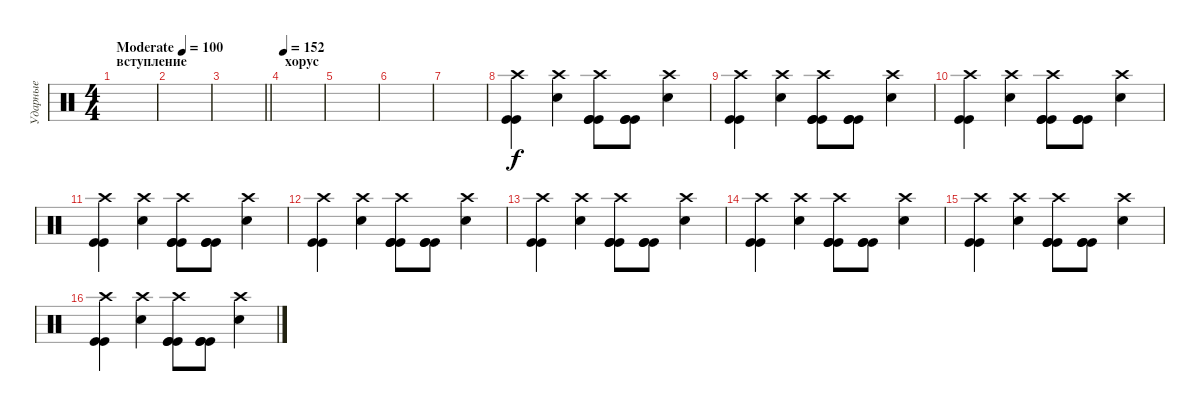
\track ("Ударные" "Ударные") {instrument percussion}
\staff {score}
\articulation defaults
\ts (4 4)
\section ("" "вступление")
\tempo (100 "Moderate")
\clef neutral
\ks c
|
|
\barLineRight lightlight
|
\section ("" "хорус")
\tempo 152
|
|
|
|
("Crash high (hit)" "Kick (hit)" "Kick (hit)").4 ("Snare (hit) 2" "Crash high (hit)").4 ("Kick (hit)" "Kick (hit)" "Kick (hit)" "Crash high (hit)").8 ("Kick (hit)" "Kick (hit)" "Kick (hit)").8 ("Snare (hit) 2" "Crash high (hit)").4 |
("Crash high (hit)" "Kick (hit)" "Kick (hit)").4 ("Snare (hit) 2" "Crash high (hit)").4 ("Kick (hit)" "Kick (hit)" "Kick (hit)" "Crash high (hit)").8 ("Kick (hit)" "Kick (hit)" "Kick (hit)").8 ("Snare (hit) 2" "Crash high (hit)").4 |
("Crash high (hit)" "Kick (hit)" "Kick (hit)").4 ("Snare (hit) 2" "Crash high (hit)").4 ("Kick (hit)" "Kick (hit)" "Kick (hit)" "Crash high (hit)").8 ("Kick (hit)" "Kick (hit)" "Kick (hit)").8 ("Snare (hit) 2" "Crash high (hit)").4 |
("Crash high (hit)" "Kick (hit)" "Kick (hit)").4 ("Snare (hit) 2" "Crash high (hit)").4 ("Kick (hit)" "Kick (hit)" "Kick (hit)" "Crash high (hit)").8 ("Kick (hit)" "Kick (hit)" "Kick (hit)").8 ("Snare (hit) 2" "Crash high (hit)").4 |
("Crash high (hit)" "Kick (hit)" "Kick (hit)").4 ("Snare (hit) 2" "Crash high (hit)").4 ("Kick (hit)" "Kick (hit)" "Kick (hit)" "Crash high (hit)").8 ("Kick (hit)" "Kick (hit)" "Kick (hit)").8 ("Snare (hit) 2" "Crash high (hit)").4 |
("Crash high (hit)" "Kick (hit)" "Kick (hit)").4 ("Snare (hit) 2" "Crash high (hit)").4 ("Kick (hit)" "Kick (hit)" "Kick (hit)" "Crash high (hit)").8 ("Kick (hit)" "Kick (hit)" "Kick (hit)").8 ("Snare (hit) 2" "Crash high (hit)").4 |
("Crash high (hit)" "Kick (hit)" "Kick (hit)").4 ("Snare (hit) 2" "Crash high (hit)").4 ("Kick (hit)" "Kick (hit)" "Kick (hit)" "Crash high (hit)").8 ("Kick (hit)" "Kick (hit)" "Kick (hit)").8 ("Snare (hit) 2" "Crash high (hit)").4 |
("Crash high (hit)" "Kick (hit)" "Kick (hit)").4 ("Snare (hit) 2" "Crash high (hit)").4 ("Kick (hit)" "Kick (hit)" "Kick (hit)" "Crash high (hit)").8 ("Kick (hit)" "Kick (hit)" "Kick (hit)").8 ("Snare (hit) 2" "Crash high (hit)").4 |
("Crash high (hit)" "Kick (hit)" "Kick (hit)").4 ("Snare (hit) 2" "Crash high (hit)").4 ("Kick (hit)" "Kick (hit)" "Kick (hit)" "Crash high (hit)").8 ("Kick (hit)" "Kick (hit)" "Kick (hit)").8 ("Snare (hit) 2" "Crash high (hit)").4
